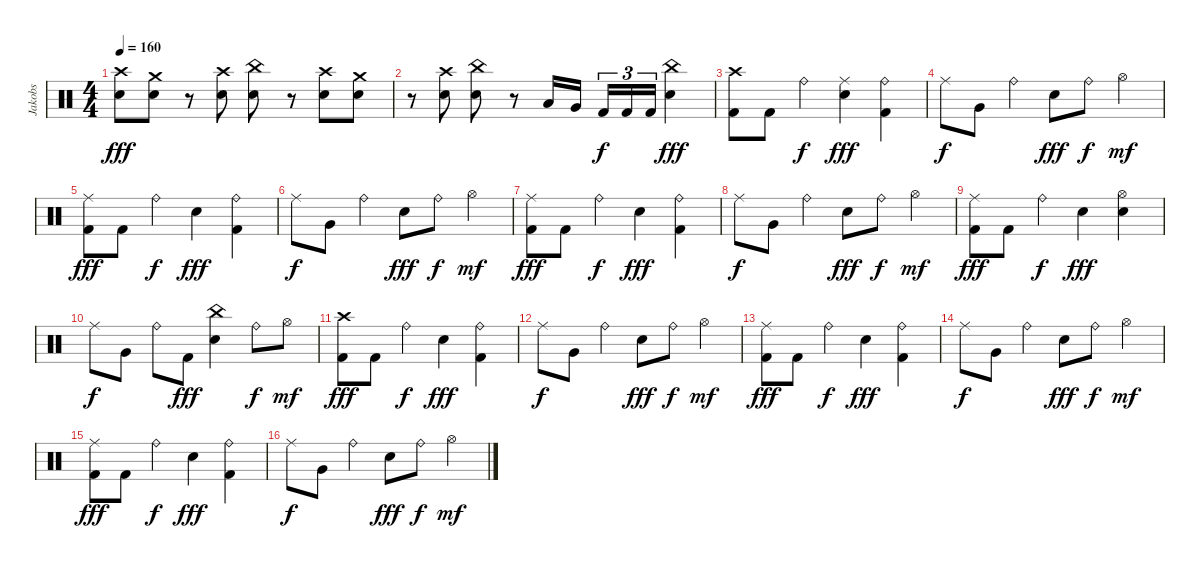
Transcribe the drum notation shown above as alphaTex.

\track ("Jakobs" "Jakobs") {instrument percussion}
\staff {score}
\articulation defaults
\ts (4 4)
\tempo 160
\clef neutral
\ks c
("Crash high (hit)" "Snare (hit) 2").8{dy fff} ("Crash medium (hit)" "Snare (hit) 2").8 r.8 ("Crash high (hit)" "Snare (hit) 2").8 ("China (hit)" "Snare (hit) 2").8 r.8 ("Crash high (hit)" "Snare (hit) 2").8 ("Crash medium (hit)" "Snare (hit) 2").8 |
r.8 ("Crash high (hit)" "Snare (hit) 2").8 ("China (hit)" "Snare (hit) 2").8 r.8 "Low Tom (hit)".16 "Very Low Tom (hit)".16 "Kick (hit) 2".16{tu (3 2) dy f} "Kick (hit) 2".16{tu (3 2)} "Kick (hit) 2".16{tu (3 2)} ("China (hit)" "Snare (hit) 2").4{dy fff} |
("Crash high (hit)" "Kick (hit) 2").8 "Kick (hit) 2".8 "Ride (bell)".4{dy f} ("Ride (middle)" "Snare (hit) 2").4{dy fff} ("Ride (bell)" "Kick (hit) 2").4 |
"Ride (middle)".8{dy f} "Very Low Tom (hit)".8 "Ride (bell)".4 "Snare (hit) 2".8{dy fff} "Ride (bell)".8{dy f} "Hi-Hat (open)".4{dy mf} |
("Ride (middle)" "Kick (hit) 2").8{dy fff} "Kick (hit) 2".8 "Ride (bell)".4{dy f} "Snare (hit) 2".4{dy fff} ("Ride (bell)" "Kick (hit) 2").4 |
"Ride (middle)".8{dy f} "Very Low Tom (hit)".8 "Ride (bell)".4 "Snare (hit) 2".8{dy fff} "Ride (bell)".8{dy f} "Hi-Hat (open)".4{dy mf} |
("Ride (middle)" "Kick (hit) 2").8{dy fff} "Kick (hit) 2".8 "Ride (bell)".4{dy f} "Snare (hit) 2".4{dy fff} ("Ride (bell)" "Kick (hit) 2").4 |
"Ride (middle)".8{dy f} "Very Low Tom (hit)".8 "Ride (bell)".4 "Snare (hit) 2".8{dy fff} "Ride (bell)".8{dy f} "Hi-Hat (open)".4{dy mf} |
("Ride (middle)" "Kick (hit) 2").8{dy fff} "Kick (hit) 2".8 "Ride (bell)".4{dy f} "Snare (hit) 2".4{dy fff} ("Hi-Hat (open)" "Snare (hit) 2").4 |
"Ride (middle)".8{dy f} "Very Low Tom (hit)".8 "Ride (bell)".8 "Kick (hit) 2".8{dy fff} ("China (hit)" "Snare (hit) 2").4 "Ride (bell)".8{dy f} "Hi-Hat (open)".8{dy mf} |
("Crash high (hit)" "Kick (hit) 2").8{dy fff} "Kick (hit) 2".8 "Ride (bell)".4{dy f} "Snare (hit) 2".4{dy fff} ("Ride (bell)" "Kick (hit) 2").4 |
"Ride (middle)".8{dy f} "Very Low Tom (hit)".8 "Ride (bell)".4 "Snare (hit) 2".8{dy fff} "Ride (bell)".8{dy f} "Hi-Hat (open)".4{dy mf} |
("Ride (middle)" "Kick (hit) 2").8{dy fff} "Kick (hit) 2".8 "Ride (bell)".4{dy f} "Snare (hit) 2".4{dy fff} ("Ride (bell)" "Kick (hit) 2").4 |
"Ride (middle)".8{dy f} "Very Low Tom (hit)".8 "Ride (bell)".4 "Snare (hit) 2".8{dy fff} "Ride (bell)".8{dy f} "Hi-Hat (open)".4{dy mf} |
("Ride (middle)" "Kick (hit) 2").8{dy fff} "Kick (hit) 2".8 "Ride (bell)".4{dy f} "Snare (hit) 2".4{dy fff} ("Ride (bell)" "Kick (hit) 2").4 |
"Ride (middle)".8{dy f} "Very Low Tom (hit)".8 "Ride (bell)".4 "Snare (hit) 2".8{dy fff} "Ride (bell)".8{dy f} "Hi-Hat (open)".4{dy mf}
